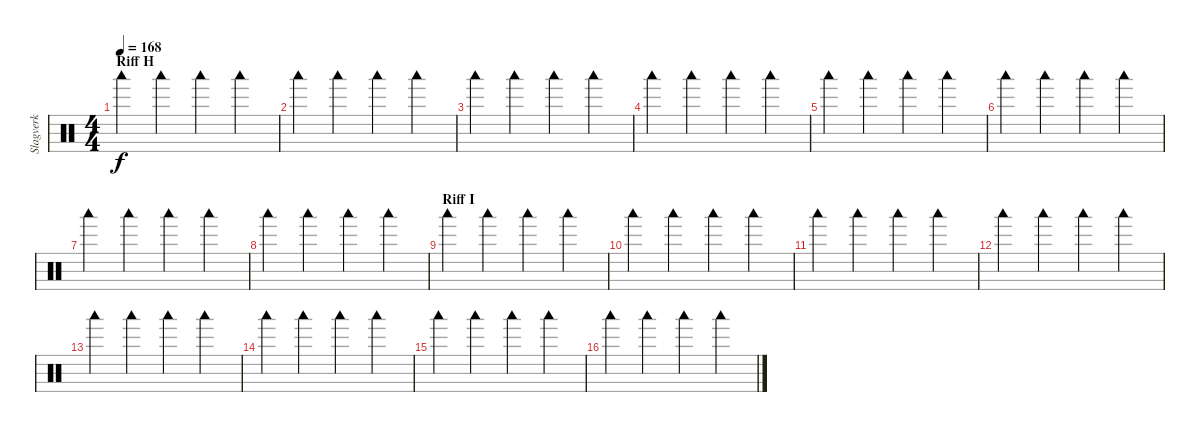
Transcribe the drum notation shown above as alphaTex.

\track ("Slagverk" "Slagverk") {instrument percussion}
\staff {score}
\articulation defaults
\ts (4 4)
\section ("" "Riff H")
\tempo 168
\clef neutral
\ks c "Woodblock low (hit)".4{dy f} "Woodblock low (hit)".4 "Woodblock low (hit)".4 "Woodblock low (hit)".4
|
"Woodblock low (hit)".4 "Woodblock low (hit)".4 "Woodblock low (hit)".4 "Woodblock low (hit)".4 |
"Woodblock low (hit)".4 "Woodblock low (hit)".4 "Woodblock low (hit)".4 "Woodblock low (hit)".4 |
"Woodblock low (hit)".4 "Woodblock low (hit)".4 "Woodblock low (hit)".4 "Woodblock low (hit)".4 |
"Woodblock low (hit)".4 "Woodblock low (hit)".4 "Woodblock low (hit)".4 "Woodblock low (hit)".4 |
"Woodblock low (hit)".4 "Woodblock low (hit)".4 "Woodblock low (hit)".4 "Woodblock low (hit)".4 |
"Woodblock low (hit)".4 "Woodblock low (hit)".4 "Woodblock low (hit)".4 "Woodblock low (hit)".4 |
"Woodblock low (hit)".4 "Woodblock low (hit)".4 "Woodblock low (hit)".4 "Woodblock low (hit)".4 |
\section ("" "Riff I")
"Woodblock low (hit)".4 "Woodblock low (hit)".4 "Woodblock low (hit)".4 "Woodblock low (hit)".4 |
"Woodblock low (hit)".4 "Woodblock low (hit)".4 "Woodblock low (hit)".4 "Woodblock low (hit)".4 |
"Woodblock low (hit)".4 "Woodblock low (hit)".4 "Woodblock low (hit)".4 "Woodblock low (hit)".4 |
"Woodblock low (hit)".4 "Woodblock low (hit)".4 "Woodblock low (hit)".4 "Woodblock low (hit)".4 |
"Woodblock low (hit)".4 "Woodblock low (hit)".4 "Woodblock low (hit)".4 "Woodblock low (hit)".4 |
"Woodblock low (hit)".4 "Woodblock low (hit)".4 "Woodblock low (hit)".4 "Woodblock low (hit)".4 |
"Woodblock low (hit)".4 "Woodblock low (hit)".4 "Woodblock low (hit)".4 "Woodblock low (hit)".4 |
"Woodblock low (hit)".4 "Woodblock low (hit)".4 "Woodblock low (hit)".4 "Woodblock low (hit)".4
